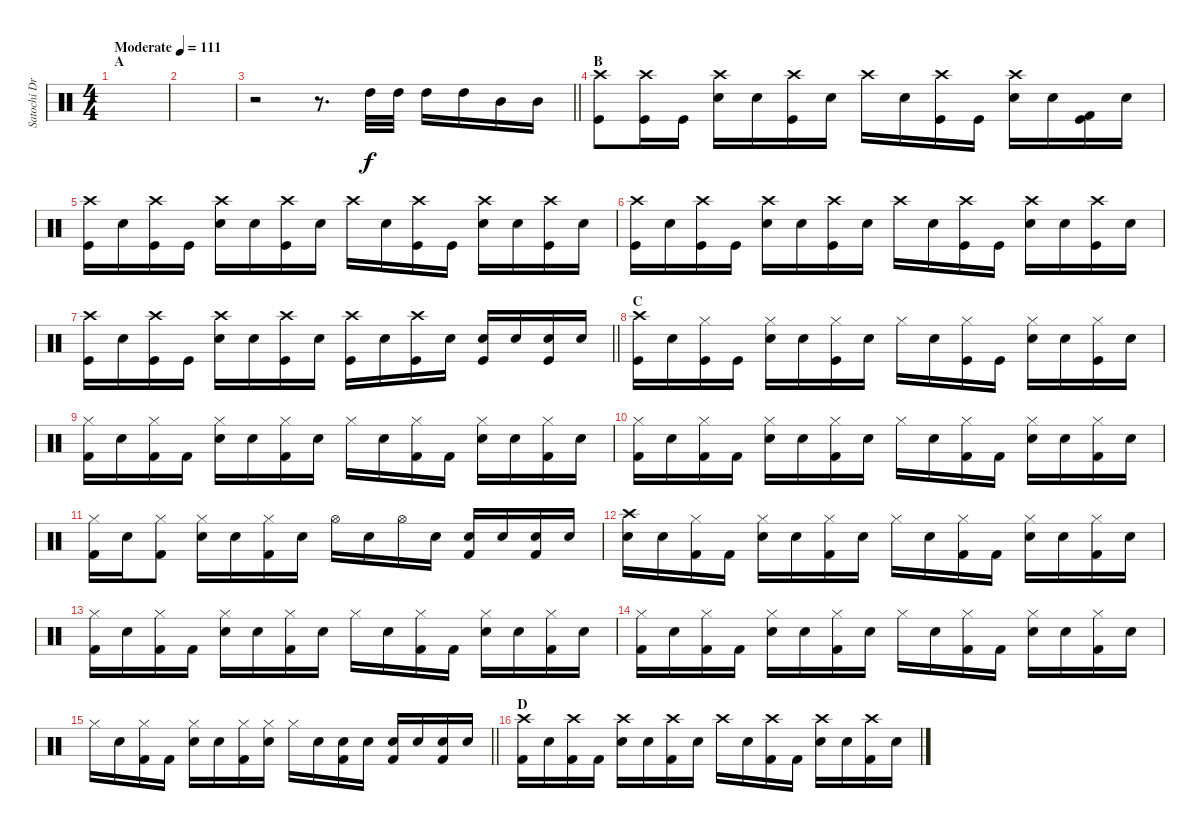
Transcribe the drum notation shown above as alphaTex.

\track ("Satochi Drums" "Satochi Dr") {instrument percussion}
\staff {score}
\articulation defaults
\ts (4 4)
\section ("" "A")
\tempo (111 "Moderate")
\clef neutral
\ks c
|
|
\barLineRight lightlight
r.2 r.8{d} "High Tom (hit)".32 "High Tom (hit)".32 "High Tom (hit)".16 "High Tom (hit)".16 "Mid Tom (hit)".16 "Mid Tom (hit)".16 |
\section ("" "B")
("Crash high (hit)" "Kick (hit)").8 ("Crash high (hit)" "Kick (hit)").16 "Kick (hit)".16 ("Crash high (hit)" "Electric Snare (hit)").16 "Electric Snare (hit)".16 ("Crash high (hit)" "Kick (hit)").16 "Electric Snare (hit)".16 "Crash high (hit)".16 "Electric Snare (hit)".16 ("Crash high (hit)" "Kick (hit)").16 "Kick (hit)".16 ("Crash high (hit)" "Electric Snare (hit)").16 "Electric Snare (hit)".16 ("Kick (hit) 2" "Kick (hit)").16 "Electric Snare (hit)".16 |
("Crash high (hit)" "Kick (hit)").16 "Electric Snare (hit)".16 ("Crash high (hit)" "Kick (hit)").16 "Kick (hit)".16 ("Crash high (hit)" "Electric Snare (hit)").16 "Electric Snare (hit)".16 ("Crash high (hit)" "Kick (hit)").16 "Electric Snare (hit)".16 "Crash high (hit)".16 "Electric Snare (hit)".16 ("Crash high (hit)" "Kick (hit)").16 "Kick (hit)".16 ("Crash high (hit)" "Electric Snare (hit)").16 "Electric Snare (hit)".16 ("Crash high (hit)" "Kick (hit)").16 "Electric Snare (hit)".16 |
("Crash high (hit)" "Kick (hit)").16 "Electric Snare (hit)".16 ("Crash high (hit)" "Kick (hit)").16 "Kick (hit)".16 ("Crash high (hit)" "Electric Snare (hit)").16 "Electric Snare (hit)".16 ("Crash high (hit)" "Kick (hit)").16 "Electric Snare (hit)".16 "Crash high (hit)".16 "Electric Snare (hit)".16 ("Crash high (hit)" "Kick (hit)").16 "Kick (hit)".16 ("Crash high (hit)" "Electric Snare (hit)").16 "Electric Snare (hit)".16 ("Crash high (hit)" "Kick (hit)").16 "Electric Snare (hit)".16 |
\barLineRight lightlight
("Crash high (hit)" "Kick (hit)").16 "Electric Snare (hit)".16 ("Crash high (hit)" "Kick (hit)").16 "Kick (hit)".16 ("Crash high (hit)" "Electric Snare (hit)").16 "Electric Snare (hit)".16 ("Crash high (hit)" "Kick (hit)").16 "Electric Snare (hit)".16 ("Crash high (hit)" "Kick (hit)").16 "Electric Snare (hit)".16 ("Crash high (hit)" "Kick (hit)").16 "Electric Snare (hit)".16 ("Electric Snare (hit)" "Kick (hit)").16 "Electric Snare (hit)".16 ("Electric Snare (hit)" "Kick (hit)").16 "Electric Snare (hit)".16 |
\section ("" "C")
("Crash high (hit)" "Kick (hit)").16 "Electric Snare (hit)".16 ("Hi-Hat (closed)" "Kick (hit)").16 "Kick (hit)".16 ("Hi-Hat (closed)" "Electric Snare (hit)").16 "Electric Snare (hit)".16 ("Hi-Hat (closed)" "Kick (hit)").16 "Electric Snare (hit)".16 "Hi-Hat (closed)".16 "Electric Snare (hit)".16 ("Hi-Hat (closed)" "Kick (hit)").16 "Kick (hit)".16 ("Hi-Hat (closed)" "Electric Snare (hit)").16 "Electric Snare (hit)".16 ("Hi-Hat (closed)" "Kick (hit)").16 "Electric Snare (hit)".16 |
("Hi-Hat (closed)" "Kick (hit) 2").16 "Snare (hit) 2".16 ("Hi-Hat (closed)" "Kick (hit) 2").16 "Kick (hit) 2".16 ("Hi-Hat (closed)" "Snare (hit) 2").16 "Snare (hit) 2".16 ("Hi-Hat (closed)" "Kick (hit) 2").16 "Snare (hit) 2".16 "Hi-Hat (closed)".16 "Snare (hit) 2".16 ("Hi-Hat (closed)" "Kick (hit) 2").16 "Kick (hit) 2".16 ("Hi-Hat (closed)" "Snare (hit) 2").16 "Snare (hit) 2".16 ("Hi-Hat (closed)" "Kick (hit) 2").16 "Snare (hit) 2".16 |
("Hi-Hat (closed)" "Kick (hit) 2").16 "Snare (hit) 2".16 ("Hi-Hat (closed)" "Kick (hit) 2").16 "Kick (hit) 2".16 ("Hi-Hat (closed)" "Snare (hit) 2").16 "Snare (hit) 2".16 ("Hi-Hat (closed)" "Kick (hit) 2").16 "Snare (hit) 2".16 "Hi-Hat (closed)".16 "Snare (hit) 2".16 ("Hi-Hat (closed)" "Kick (hit) 2").16 "Kick (hit) 2".16 ("Hi-Hat (closed)" "Snare (hit) 2").16 "Snare (hit) 2".16 ("Hi-Hat (closed)" "Kick (hit) 2").16 "Snare (hit) 2".16 |
("Hi-Hat (closed)" "Kick (hit) 2").16 "Snare (hit) 2".16 ("Hi-Hat (closed)" "Kick (hit) 2").8 ("Hi-Hat (closed)" "Snare (hit) 2").16 "Snare (hit) 2".16 ("Hi-Hat (closed)" "Kick (hit) 2").16 "Snare (hit) 2".16 "Hi-Hat (open)".16 "Snare (hit) 2".16 "Hi-Hat (open)".16 "Snare (hit) 2".16 ("Snare (hit) 2" "Kick (hit) 2").16 "Snare (hit) 2".16 ("Snare (hit) 2" "Kick (hit) 2").16 "Snare (hit) 2".16 |
("Crash high (hit)" "Snare (hit) 2").16 "Snare (hit) 2".16 ("Hi-Hat (closed)" "Kick (hit) 2").16 "Kick (hit) 2".16 ("Hi-Hat (closed)" "Snare (hit) 2").16 "Snare (hit) 2".16 ("Hi-Hat (closed)" "Kick (hit) 2").16 "Snare (hit) 2".16 "Hi-Hat (closed)".16 "Snare (hit) 2".16 ("Hi-Hat (closed)" "Kick (hit) 2").16 "Kick (hit) 2".16 ("Hi-Hat (closed)" "Snare (hit) 2").16 "Snare (hit) 2".16 ("Hi-Hat (closed)" "Kick (hit) 2").16 "Snare (hit) 2".16 |
("Hi-Hat (closed)" "Kick (hit) 2").16 "Snare (hit) 2".16 ("Hi-Hat (closed)" "Kick (hit) 2").16 "Kick (hit) 2".16 ("Hi-Hat (closed)" "Snare (hit) 2").16 "Snare (hit) 2".16 ("Hi-Hat (closed)" "Kick (hit) 2").16 "Snare (hit) 2".16 "Hi-Hat (closed)".16 "Snare (hit) 2".16 ("Hi-Hat (closed)" "Kick (hit) 2").16 "Kick (hit) 2".16 ("Hi-Hat (closed)" "Snare (hit) 2").16 "Snare (hit) 2".16 ("Hi-Hat (closed)" "Kick (hit) 2").16 "Snare (hit) 2".16 |
("Hi-Hat (closed)" "Kick (hit) 2").16 "Snare (hit) 2".16 ("Hi-Hat (closed)" "Kick (hit) 2").16 "Kick (hit) 2".16 ("Hi-Hat (closed)" "Snare (hit) 2").16 "Snare (hit) 2".16 ("Hi-Hat (closed)" "Kick (hit) 2").16 "Snare (hit) 2".16 "Hi-Hat (closed)".16 "Snare (hit) 2".16 ("Hi-Hat (closed)" "Kick (hit) 2").16 "Kick (hit) 2".16 ("Hi-Hat (closed)" "Snare (hit) 2").16 "Snare (hit) 2".16 ("Hi-Hat (closed)" "Kick (hit) 2").16 "Snare (hit) 2".16 |
\barLineRight lightlight "Hi-Hat (closed)".16 "Snare (hit) 2".16
("Hi-Hat (closed)" "Kick (hit) 2").16 "Kick (hit) 2".16 ("Hi-Hat (closed)" "Snare (hit) 2").16 "Snare (hit) 2".16 ("Hi-Hat (closed)" "Kick (hit) 2").16 ("Hi-Hat (closed)" "Snare (hit) 2").16 "Hi-Hat (closed)".16 "Snare (hit) 2".16 ("Snare (hit) 2" "Kick (hit) 2").16 "Snare (hit) 2".16 ("Snare (hit) 2" "Kick (hit) 2").16 "Snare (hit) 2".16 ("Snare (hit) 2" "Kick (hit) 2").16 "Snare (hit) 2".16 |
\section ("" "D")
("Crash high (hit)" "Kick (hit) 2").16 "Snare (hit) 2".16 ("Crash high (hit)" "Kick (hit) 2").16 "Kick (hit) 2".16 ("Crash high (hit)" "Snare (hit) 2").16 "Snare (hit) 2".16 ("Crash high (hit)" "Kick (hit) 2").16 "Snare (hit) 2".16 "Crash high (hit)".16 "Snare (hit) 2".16 ("Crash high (hit)" "Kick (hit) 2").16 "Kick (hit) 2".16 ("Crash high (hit)" "Snare (hit) 2").16 "Snare (hit) 2".16 ("Crash high (hit)" "Kick (hit) 2").16 "Snare (hit) 2".16
